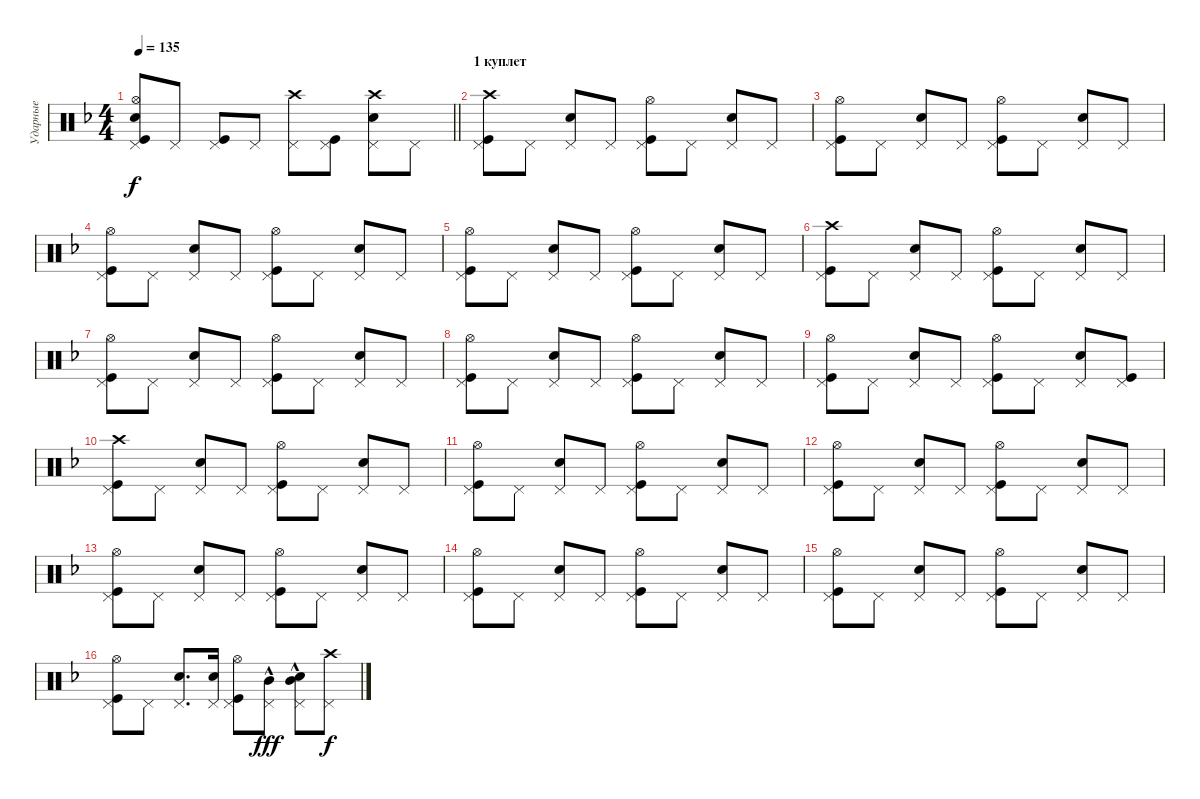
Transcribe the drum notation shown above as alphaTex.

\track ("Ударные" "Ударные") {instrument percussion}
\staff {score}
\articulation defaults
\ts (4 4)
\tempo 135
\clef neutral
\barLineRight lightlight
\ks dminor
("Pedal Hi-Hat (hit)" "Kick (hit)" "Hi-Hat (open)" "Snare (hit) 2").8{dy f} "Pedal Hi-Hat (hit)".8 ("Pedal Hi-Hat (hit)" "Kick (hit)").8 "Pedal Hi-Hat (hit)".8 ("Pedal Hi-Hat (hit)" "Crash high (hit)").8 ("Pedal Hi-Hat (hit)" "Kick (hit)").8 ("Pedal Hi-Hat (hit)" "Snare (hit) 2" "Crash high (hit)").8 "Pedal Hi-Hat (hit)".8 |
\section ("" "1 куплет")
("Pedal Hi-Hat (hit)" "Kick (hit)" "Crash high (hit)").8 "Pedal Hi-Hat (hit)".8 ("Pedal Hi-Hat (hit)" "Snare (hit) 2").8 "Pedal Hi-Hat (hit)".8 ("Pedal Hi-Hat (hit)" "Kick (hit)" "Hi-Hat (open)").8 "Pedal Hi-Hat (hit)".8 ("Pedal Hi-Hat (hit)" "Snare (hit) 2").8 "Pedal Hi-Hat (hit)".8 |
("Pedal Hi-Hat (hit)" "Kick (hit)" "Hi-Hat (open)").8 "Pedal Hi-Hat (hit)".8 ("Pedal Hi-Hat (hit)" "Snare (hit) 2").8 "Pedal Hi-Hat (hit)".8 ("Pedal Hi-Hat (hit)" "Kick (hit)" "Hi-Hat (open)").8 "Pedal Hi-Hat (hit)".8 ("Pedal Hi-Hat (hit)" "Snare (hit) 2").8 "Pedal Hi-Hat (hit)".8 |
("Pedal Hi-Hat (hit)" "Kick (hit)" "Hi-Hat (open)").8 "Pedal Hi-Hat (hit)".8 ("Pedal Hi-Hat (hit)" "Snare (hit) 2").8 "Pedal Hi-Hat (hit)".8 ("Pedal Hi-Hat (hit)" "Kick (hit)" "Hi-Hat (open)").8 "Pedal Hi-Hat (hit)".8 ("Pedal Hi-Hat (hit)" "Snare (hit) 2").8 "Pedal Hi-Hat (hit)".8 |
("Pedal Hi-Hat (hit)" "Kick (hit)" "Hi-Hat (open)").8 "Pedal Hi-Hat (hit)".8 ("Pedal Hi-Hat (hit)" "Snare (hit) 2").8 "Pedal Hi-Hat (hit)".8 ("Pedal Hi-Hat (hit)" "Kick (hit)" "Hi-Hat (open)").8 "Pedal Hi-Hat (hit)".8 ("Pedal Hi-Hat (hit)" "Snare (hit) 2").8 "Pedal Hi-Hat (hit)".8 |
("Pedal Hi-Hat (hit)" "Kick (hit)" "Crash high (hit)").8 "Pedal Hi-Hat (hit)".8 ("Pedal Hi-Hat (hit)" "Snare (hit) 2").8 "Pedal Hi-Hat (hit)".8 ("Pedal Hi-Hat (hit)" "Kick (hit)" "Hi-Hat (open)").8 "Pedal Hi-Hat (hit)".8 ("Pedal Hi-Hat (hit)" "Snare (hit) 2").8 "Pedal Hi-Hat (hit)".8 |
("Pedal Hi-Hat (hit)" "Kick (hit)" "Hi-Hat (open)").8 "Pedal Hi-Hat (hit)".8 ("Pedal Hi-Hat (hit)" "Snare (hit) 2").8 "Pedal Hi-Hat (hit)".8 ("Pedal Hi-Hat (hit)" "Kick (hit)" "Hi-Hat (open)").8 "Pedal Hi-Hat (hit)".8 ("Pedal Hi-Hat (hit)" "Snare (hit) 2").8 "Pedal Hi-Hat (hit)".8 |
("Pedal Hi-Hat (hit)" "Kick (hit)" "Hi-Hat (open)").8 "Pedal Hi-Hat (hit)".8 ("Pedal Hi-Hat (hit)" "Snare (hit) 2").8 "Pedal Hi-Hat (hit)".8 ("Pedal Hi-Hat (hit)" "Kick (hit)" "Hi-Hat (open)").8 "Pedal Hi-Hat (hit)".8 ("Pedal Hi-Hat (hit)" "Snare (hit) 2").8 "Pedal Hi-Hat (hit)".8 |
("Pedal Hi-Hat (hit)" "Kick (hit)" "Hi-Hat (open)").8 "Pedal Hi-Hat (hit)".8 ("Pedal Hi-Hat (hit)" "Snare (hit) 2").8 "Pedal Hi-Hat (hit)".8 ("Pedal Hi-Hat (hit)" "Kick (hit)" "Hi-Hat (open)").8 "Pedal Hi-Hat (hit)".8 ("Pedal Hi-Hat (hit)" "Snare (hit) 2").8 ("Pedal Hi-Hat (hit)" "Kick (hit)").8 |
("Pedal Hi-Hat (hit)" "Kick (hit)" "Crash high (hit)").8 "Pedal Hi-Hat (hit)".8 ("Pedal Hi-Hat (hit)" "Snare (hit) 2").8 "Pedal Hi-Hat (hit)".8 ("Pedal Hi-Hat (hit)" "Kick (hit)" "Hi-Hat (open)").8 "Pedal Hi-Hat (hit)".8 ("Pedal Hi-Hat (hit)" "Snare (hit) 2").8 "Pedal Hi-Hat (hit)".8 |
("Pedal Hi-Hat (hit)" "Kick (hit)" "Hi-Hat (open)").8 "Pedal Hi-Hat (hit)".8 ("Pedal Hi-Hat (hit)" "Snare (hit) 2").8 "Pedal Hi-Hat (hit)".8 ("Pedal Hi-Hat (hit)" "Kick (hit)" "Hi-Hat (open)").8 "Pedal Hi-Hat (hit)".8 ("Pedal Hi-Hat (hit)" "Snare (hit) 2").8 "Pedal Hi-Hat (hit)".8 |
("Pedal Hi-Hat (hit)" "Kick (hit)" "Hi-Hat (open)").8 "Pedal Hi-Hat (hit)".8 ("Pedal Hi-Hat (hit)" "Snare (hit) 2").8 "Pedal Hi-Hat (hit)".8 ("Pedal Hi-Hat (hit)" "Kick (hit)" "Hi-Hat (open)").8 "Pedal Hi-Hat (hit)".8 ("Pedal Hi-Hat (hit)" "Snare (hit) 2").8 "Pedal Hi-Hat (hit)".8 |
("Pedal Hi-Hat (hit)" "Kick (hit)" "Hi-Hat (open)").8 "Pedal Hi-Hat (hit)".8 ("Pedal Hi-Hat (hit)" "Snare (hit) 2").8 "Pedal Hi-Hat (hit)".8 ("Pedal Hi-Hat (hit)" "Kick (hit)" "Hi-Hat (open)").8 "Pedal Hi-Hat (hit)".8 ("Pedal Hi-Hat (hit)" "Snare (hit) 2").8 "Pedal Hi-Hat (hit)".8 |
("Pedal Hi-Hat (hit)" "Kick (hit)" "Hi-Hat (open)").8 "Pedal Hi-Hat (hit)".8 ("Pedal Hi-Hat (hit)" "Snare (hit) 2").8 "Pedal Hi-Hat (hit)".8 ("Pedal Hi-Hat (hit)" "Kick (hit)" "Hi-Hat (open)").8 "Pedal Hi-Hat (hit)".8 ("Pedal Hi-Hat (hit)" "Snare (hit) 2").8 "Pedal Hi-Hat (hit)".8 |
("Pedal Hi-Hat (hit)" "Kick (hit)" "Hi-Hat (open)").8 "Pedal Hi-Hat (hit)".8 ("Pedal Hi-Hat (hit)" "Snare (hit) 2").8 "Pedal Hi-Hat (hit)".8 ("Pedal Hi-Hat (hit)" "Kick (hit)" "Hi-Hat (open)").8 "Pedal Hi-Hat (hit)".8 ("Pedal Hi-Hat (hit)" "Snare (hit) 2").8 "Pedal Hi-Hat (hit)".8 |
("Pedal Hi-Hat (hit)" "Kick (hit)" "Hi-Hat (open)").8 "Pedal Hi-Hat (hit)".8 ("Pedal Hi-Hat (hit)" "Snare (hit) 2").8{d} ("Pedal Hi-Hat (hit)" "Snare (hit) 2").16 ("Pedal Hi-Hat (hit)" "Kick (hit)" "Hi-Hat (open)").8 ("Pedal Hi-Hat (hit)" "Mid Tom (hit)"{hac}).8{dy fff} ("Pedal Hi-Hat (hit)" "Snare (hit) 2" "Mid Tom (hit)"{hac}).8 ("Pedal Hi-Hat (hit)" "Crash high (hit)").8{dy f}
